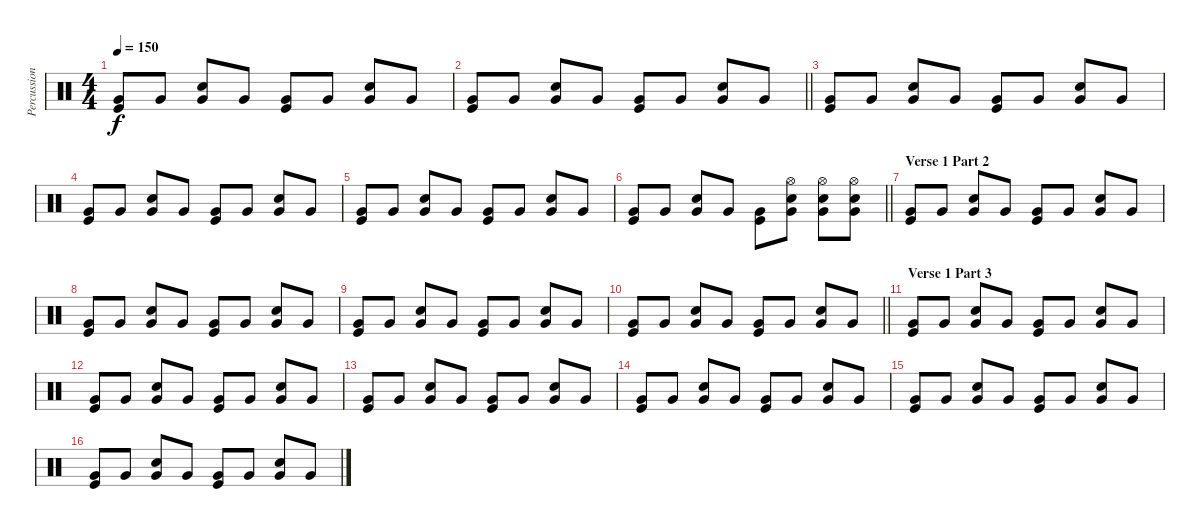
\track ("Percussion" "Percussion") {instrument percussion}
\staff {score}
\articulation defaults
\ts (4 4)
\tempo 150
\clef neutral
\ks c
("Very Low Tom (hit)" "Kick (hit)").8{dy f} "Very Low Tom (hit)".8 ("Very Low Tom (hit)" "Snare (hit) 2").8 "Very Low Tom (hit)".8 ("Very Low Tom (hit)" "Kick (hit)").8 "Very Low Tom (hit)".8 ("Very Low Tom (hit)" "Snare (hit) 2").8 "Very Low Tom (hit)".8 |
\barLineRight lightlight
("Very Low Tom (hit)" "Kick (hit)").8 "Very Low Tom (hit)".8 ("Very Low Tom (hit)" "Snare (hit) 2").8 "Very Low Tom (hit)".8 ("Very Low Tom (hit)" "Kick (hit)").8 "Very Low Tom (hit)".8 ("Very Low Tom (hit)" "Snare (hit) 2").8 "Very Low Tom (hit)".8 |
("Very Low Tom (hit)" "Kick (hit)").8 "Very Low Tom (hit)".8 ("Very Low Tom (hit)" "Snare (hit) 2").8 "Very Low Tom (hit)".8 ("Very Low Tom (hit)" "Kick (hit)").8 "Very Low Tom (hit)".8 ("Very Low Tom (hit)" "Snare (hit) 2").8 "Very Low Tom (hit)".8 |
("Very Low Tom (hit)" "Kick (hit)").8 "Very Low Tom (hit)".8 ("Very Low Tom (hit)" "Snare (hit) 2").8 "Very Low Tom (hit)".8 ("Very Low Tom (hit)" "Kick (hit)").8 "Very Low Tom (hit)".8 ("Very Low Tom (hit)" "Snare (hit) 2").8 "Very Low Tom (hit)".8 |
("Very Low Tom (hit)" "Kick (hit)").8 "Very Low Tom (hit)".8 ("Very Low Tom (hit)" "Snare (hit) 2").8 "Very Low Tom (hit)".8 ("Very Low Tom (hit)" "Kick (hit)").8 "Very Low Tom (hit)".8 ("Very Low Tom (hit)" "Snare (hit) 2").8 "Very Low Tom (hit)".8 |
\barLineRight lightlight
("Very Low Tom (hit)" "Kick (hit)").8 "Very Low Tom (hit)".8 ("Very Low Tom (hit)" "Snare (hit) 2").8 "Very Low Tom (hit)".8 ("Very Low Tom (hit)" "Kick (hit)").8 ("Very Low Tom (hit)" "Snare (hit) 2" "Hi-Hat (open)").8 ("Very Low Tom (hit)" "Snare (hit) 2" "Hi-Hat (open)").8 ("Very Low Tom (hit)" "Snare (hit) 2" "Hi-Hat (open)").8 |
\section ("" "Verse 1 Part 2")
("Very Low Tom (hit)" "Kick (hit)").8 "Very Low Tom (hit)".8 ("Very Low Tom (hit)" "Snare (hit) 2").8 "Very Low Tom (hit)".8 ("Very Low Tom (hit)" "Kick (hit)").8 "Very Low Tom (hit)".8 ("Very Low Tom (hit)" "Snare (hit) 2").8 "Very Low Tom (hit)".8 |
("Very Low Tom (hit)" "Kick (hit)").8 "Very Low Tom (hit)".8 ("Very Low Tom (hit)" "Snare (hit) 2").8 "Very Low Tom (hit)".8 ("Very Low Tom (hit)" "Kick (hit)").8 "Very Low Tom (hit)".8 ("Very Low Tom (hit)" "Snare (hit) 2").8 "Very Low Tom (hit)".8 |
("Very Low Tom (hit)" "Kick (hit)").8 "Very Low Tom (hit)".8 ("Very Low Tom (hit)" "Snare (hit) 2").8 "Very Low Tom (hit)".8 ("Very Low Tom (hit)" "Kick (hit)").8 "Very Low Tom (hit)".8 ("Very Low Tom (hit)" "Snare (hit) 2").8 "Very Low Tom (hit)".8 |
\barLineRight lightlight
("Very Low Tom (hit)" "Kick (hit)").8 "Very Low Tom (hit)".8 ("Very Low Tom (hit)" "Snare (hit) 2").8 "Very Low Tom (hit)".8 ("Very Low Tom (hit)" "Kick (hit)").8 "Very Low Tom (hit)".8 ("Very Low Tom (hit)" "Snare (hit) 2").8 "Very Low Tom (hit)".8 |
\section ("" "Verse 1 Part 3")
("Very Low Tom (hit)" "Kick (hit)").8 "Very Low Tom (hit)".8 ("Very Low Tom (hit)" "Snare (hit) 2").8 "Very Low Tom (hit)".8 ("Very Low Tom (hit)" "Kick (hit)").8 "Very Low Tom (hit)".8 ("Very Low Tom (hit)" "Snare (hit) 2").8 "Very Low Tom (hit)".8 |
("Very Low Tom (hit)" "Kick (hit)").8 "Very Low Tom (hit)".8 ("Very Low Tom (hit)" "Snare (hit) 2").8 "Very Low Tom (hit)".8 ("Very Low Tom (hit)" "Kick (hit)").8 "Very Low Tom (hit)".8 ("Very Low Tom (hit)" "Snare (hit) 2").8 "Very Low Tom (hit)".8 |
("Very Low Tom (hit)" "Kick (hit)").8 "Very Low Tom (hit)".8 ("Very Low Tom (hit)" "Snare (hit) 2").8 "Very Low Tom (hit)".8 ("Very Low Tom (hit)" "Kick (hit)").8 "Very Low Tom (hit)".8 ("Very Low Tom (hit)" "Snare (hit) 2").8 "Very Low Tom (hit)".8 |
("Very Low Tom (hit)" "Kick (hit)").8 "Very Low Tom (hit)".8 ("Very Low Tom (hit)" "Snare (hit) 2").8 "Very Low Tom (hit)".8 ("Very Low Tom (hit)" "Kick (hit)").8 "Very Low Tom (hit)".8 ("Very Low Tom (hit)" "Snare (hit) 2").8 "Very Low Tom (hit)".8 |
("Very Low Tom (hit)" "Kick (hit)").8 "Very Low Tom (hit)".8 ("Very Low Tom (hit)" "Snare (hit) 2").8 "Very Low Tom (hit)".8 ("Very Low Tom (hit)" "Kick (hit)").8 "Very Low Tom (hit)".8 ("Very Low Tom (hit)" "Snare (hit) 2").8 "Very Low Tom (hit)".8 |
("Very Low Tom (hit)" "Kick (hit)").8 "Very Low Tom (hit)".8 ("Very Low Tom (hit)" "Snare (hit) 2").8 "Very Low Tom (hit)".8 ("Very Low Tom (hit)" "Kick (hit)").8 "Very Low Tom (hit)".8 ("Very Low Tom (hit)" "Snare (hit) 2").8 "Very Low Tom (hit)".8
